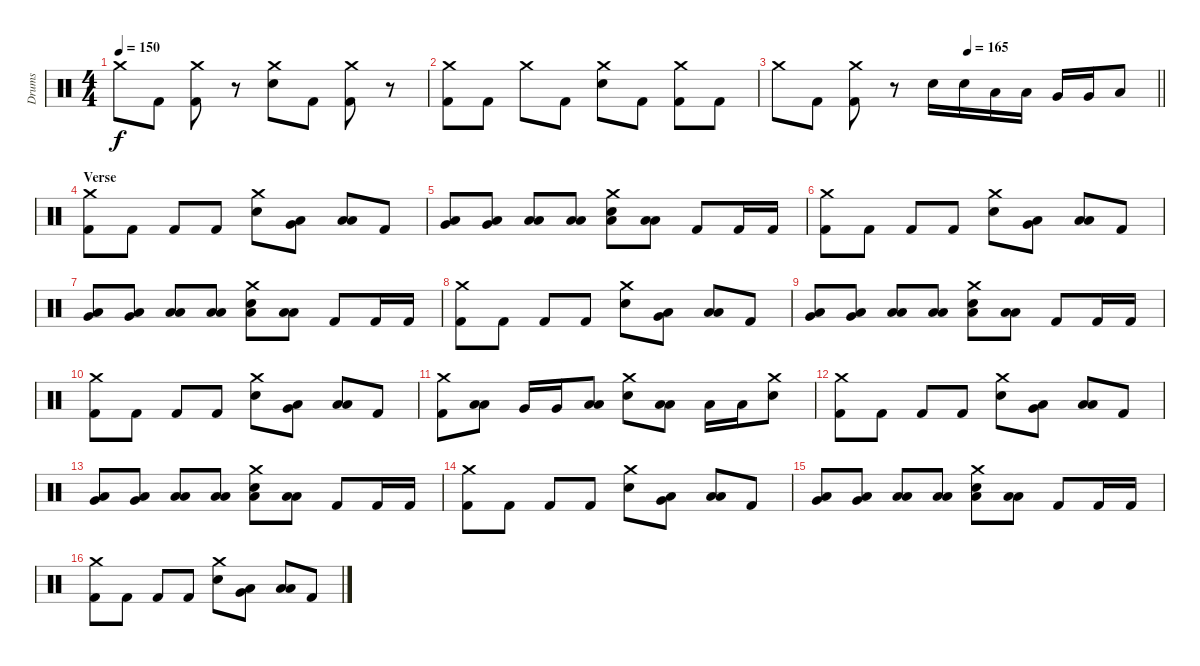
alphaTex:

\track ("Drums" "Drums") {instrument percussion}
\staff {score}
\articulation defaults
\ts (4 4)
\tempo 150
\clef neutral
\ks c "Crash medium (hit)".8{dy f} "Kick (hit) 2".8
("Crash medium (hit)" "Kick (hit) 2").8 r.8 ("Crash medium (hit)" "Electric Snare (hit)").8 "Kick (hit) 2".8 ("Crash medium (hit)" "Kick (hit) 2").8 r.8 |
("Crash medium (hit)" "Kick (hit) 2").8 "Kick (hit) 2".8 "Crash medium (hit)".8 "Kick (hit) 2".8 ("Crash medium (hit)" "Electric Snare (hit)").8 "Kick (hit) 2".8 ("Crash medium (hit)" "Kick (hit) 2").8 "Kick (hit) 2".8 |
\tempo (165 0.5)
\barLineRight lightlight "Crash medium (hit)".8 "Kick (hit) 2".8
("Crash medium (hit)" "Kick (hit) 2").8 r.8 "Electric Snare (hit)".16 "Electric Snare (hit)".16 "Low Tom (hit)".16 "Low Tom (hit)".16 "Very Low Tom (hit)".16 "Very Low Tom (hit)".16 "Low Floor Tom (hit)".8 |
\section ("" "Verse")
("Crash medium (hit)" "Kick (hit) 2").8 "Kick (hit) 2".8 "Kick (hit) 2".8 "Kick (hit) 2".8 ("Crash medium (hit)" "Electric Snare (hit)").8 ("Low Tom (hit)" "Very Low Tom (hit)").8 ("Low Tom (hit)" "Low Floor Tom (hit)").8 "Kick (hit) 2".8 |
("Low Tom (hit)" "Very Low Tom (hit)").8 ("Low Tom (hit)" "Very Low Tom (hit)").8 ("Low Tom (hit)" "Low Floor Tom (hit)").8 ("Low Tom (hit)" "Low Floor Tom (hit)").8 ("Crash medium (hit)" "Electric Snare (hit)" "Low Tom (hit)").8 ("Low Tom (hit)" "Low Tom (hit)").8 "Kick (hit) 2".8 "Kick (hit) 2".16 "Kick (hit) 2".16 |
("Crash medium (hit)" "Kick (hit) 2").8 "Kick (hit) 2".8 "Kick (hit) 2".8 "Kick (hit) 2".8 ("Crash medium (hit)" "Electric Snare (hit)").8 ("Low Tom (hit)" "Very Low Tom (hit)").8 ("Low Tom (hit)" "Low Floor Tom (hit)").8 "Kick (hit) 2".8 |
("Low Tom (hit)" "Very Low Tom (hit)").8 ("Low Tom (hit)" "Very Low Tom (hit)").8 ("Low Tom (hit)" "Low Floor Tom (hit)").8 ("Low Tom (hit)" "Low Floor Tom (hit)").8 ("Crash medium (hit)" "Electric Snare (hit)" "Low Tom (hit)").8 ("Low Tom (hit)" "Low Tom (hit)").8 "Kick (hit) 2".8 "Kick (hit) 2".16 "Kick (hit) 2".16 |
("Crash medium (hit)" "Kick (hit) 2").8 "Kick (hit) 2".8 "Kick (hit) 2".8 "Kick (hit) 2".8 ("Crash medium (hit)" "Electric Snare (hit)").8 ("Low Tom (hit)" "Very Low Tom (hit)").8 ("Low Tom (hit)" "Low Floor Tom (hit)").8 "Kick (hit) 2".8 |
("Low Tom (hit)" "Very Low Tom (hit)").8 ("Low Tom (hit)" "Very Low Tom (hit)").8 ("Low Tom (hit)" "Low Floor Tom (hit)").8 ("Low Tom (hit)" "Low Floor Tom (hit)").8 ("Crash medium (hit)" "Electric Snare (hit)" "Low Tom (hit)").8 ("Low Tom (hit)" "Low Tom (hit)").8 "Kick (hit) 2".8 "Kick (hit) 2".16 "Kick (hit) 2".16 |
("Crash medium (hit)" "Kick (hit) 2").8 "Kick (hit) 2".8 "Kick (hit) 2".8 "Kick (hit) 2".8 ("Crash medium (hit)" "Electric Snare (hit)").8 ("Low Tom (hit)" "Very Low Tom (hit)").8 ("Low Tom (hit)" "Low Floor Tom (hit)").8 "Kick (hit) 2".8 |
("Crash medium (hit)" "Kick (hit) 2").8 ("Low Tom (hit)" "Low Tom (hit)").8 "Very Low Tom (hit)".16 "Very Low Tom (hit)".16 ("Low Tom (hit)" "Low Floor Tom (hit)").8 ("Crash medium (hit)" "Electric Snare (hit)").8 ("Low Tom (hit)" "Low Tom (hit)").8 "Low Tom (hit)".16 "Low Tom (hit)".16 ("Crash medium (hit)" "Electric Snare (hit)").8 |
("Crash medium (hit)" "Kick (hit) 2").8 "Kick (hit) 2".8 "Kick (hit) 2".8 "Kick (hit) 2".8 ("Crash medium (hit)" "Electric Snare (hit)").8 ("Low Tom (hit)" "Very Low Tom (hit)").8 ("Low Tom (hit)" "Low Floor Tom (hit)").8 "Kick (hit) 2".8 |
("Low Tom (hit)" "Very Low Tom (hit)").8 ("Low Tom (hit)" "Very Low Tom (hit)").8 ("Low Tom (hit)" "Low Floor Tom (hit)").8 ("Low Tom (hit)" "Low Floor Tom (hit)").8 ("Crash medium (hit)" "Electric Snare (hit)" "Low Tom (hit)").8 ("Low Tom (hit)" "Low Tom (hit)").8 "Kick (hit) 2".8 "Kick (hit) 2".16 "Kick (hit) 2".16 |
("Crash medium (hit)" "Kick (hit) 2").8 "Kick (hit) 2".8 "Kick (hit) 2".8 "Kick (hit) 2".8 ("Crash medium (hit)" "Electric Snare (hit)").8 ("Low Tom (hit)" "Very Low Tom (hit)").8 ("Low Tom (hit)" "Low Floor Tom (hit)").8 "Kick (hit) 2".8 |
("Low Tom (hit)" "Very Low Tom (hit)").8 ("Low Tom (hit)" "Very Low Tom (hit)").8 ("Low Tom (hit)" "Low Floor Tom (hit)").8 ("Low Tom (hit)" "Low Floor Tom (hit)").8 ("Crash medium (hit)" "Electric Snare (hit)" "Low Tom (hit)").8 ("Low Tom (hit)" "Low Tom (hit)").8 "Kick (hit) 2".8 "Kick (hit) 2".16 "Kick (hit) 2".16 |
("Crash medium (hit)" "Kick (hit) 2").8 "Kick (hit) 2".8 "Kick (hit) 2".8 "Kick (hit) 2".8 ("Crash medium (hit)" "Electric Snare (hit)").8 ("Low Tom (hit)" "Very Low Tom (hit)").8 ("Low Tom (hit)" "Low Floor Tom (hit)").8 "Kick (hit) 2".8
